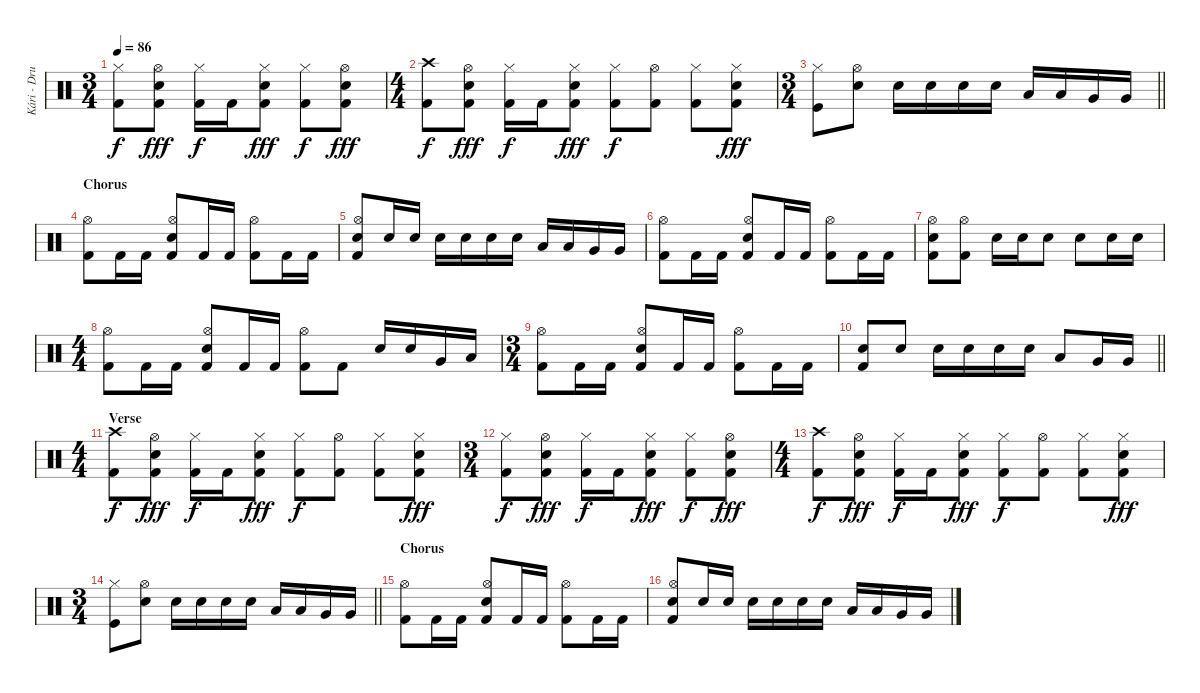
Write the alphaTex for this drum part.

\track ("Kári - Drums" "Kári - Dru") {instrument percussion}
\staff {score}
\articulation defaults
\ts (3 4)
\tempo 86
\clef neutral
\ks c
("Hi-Hat (closed)" "Kick (hit) 2").8{dy f} ("Hi-Hat (open)" "Electric Snare (hit)" "Kick (hit) 2").8{dy fff} ("Hi-Hat (closed)" "Kick (hit) 2").16{dy f} "Kick (hit) 2".16 ("Hi-Hat (closed)" "Electric Snare (hit)" "Kick (hit) 2").8{dy fff} ("Hi-Hat (closed)" "Kick (hit) 2").8{dy f} ("Hi-Hat (open)" "Electric Snare (hit)" "Kick (hit) 2").8{dy fff} |
\ts (4 4)
("Crash high (hit)" "Kick (hit) 2").8{dy f} ("Hi-Hat (open)" "Electric Snare (hit)" "Kick (hit) 2").8{dy fff} ("Hi-Hat (closed)" "Kick (hit) 2").16{dy f} "Kick (hit) 2".16 ("Hi-Hat (closed)" "Electric Snare (hit)" "Kick (hit) 2").8{dy fff} ("Hi-Hat (closed)" "Kick (hit) 2").8{dy f} ("Hi-Hat (open)" "Kick (hit) 2").8 ("Hi-Hat (closed)" "Kick (hit) 2").8 ("Hi-Hat (closed)" "Electric Snare (hit)" "Kick (hit) 2").8{dy fff} |
\ts (3 4)
\barLineRight lightlight
("Hi-Hat (closed)" "Kick (hit)").8 ("Hi-Hat (open)" "Electric Snare (hit)").8 "Electric Snare (hit)".16 "Electric Snare (hit)".16 "Electric Snare (hit)".16 "Electric Snare (hit)".16 "Low Tom (hit)".16 "Low Tom (hit)".16 "Very Low Tom (hit)".16 "Very Low Tom (hit)".16 |
\section ("" "Chorus")
("Hi-Hat (open)" "Kick (hit) 2").8 "Kick (hit) 2".16 "Kick (hit) 2".16 ("Hi-Hat (open)" "Electric Snare (hit)" "Kick (hit) 2").8 "Kick (hit) 2".16 "Kick (hit) 2".16 ("Hi-Hat (open)" "Kick (hit) 2").8 "Kick (hit) 2".16 "Kick (hit) 2".16 |
("Hi-Hat (open)" "Electric Snare (hit)" "Kick (hit) 2").8 "Electric Snare (hit)".16 "Electric Snare (hit)".16 "Electric Snare (hit)".16 "Electric Snare (hit)".16 "Electric Snare (hit)".16 "Electric Snare (hit)".16 "Low Tom (hit)".16 "Low Tom (hit)".16 "Very Low Tom (hit)".16 "Very Low Tom (hit)".16 |
("Hi-Hat (open)" "Kick (hit) 2").8 "Kick (hit) 2".16 "Kick (hit) 2".16 ("Hi-Hat (open)" "Electric Snare (hit)" "Kick (hit) 2").8 "Kick (hit) 2".16 "Kick (hit) 2".16 ("Hi-Hat (open)" "Kick (hit) 2").8 "Kick (hit) 2".16 "Kick (hit) 2".16 |
("Hi-Hat (open)" "Electric Snare (hit)" "Kick (hit) 2").8 ("Hi-Hat (open)" "Kick (hit) 2").8 "Electric Snare (hit)".16 "Electric Snare (hit)".16 "Electric Snare (hit)".8 "Electric Snare (hit)".8 "Electric Snare (hit)".16 "Electric Snare (hit)".16 |
\ts (4 4)
("Hi-Hat (open)" "Kick (hit) 2").8 "Kick (hit) 2".16 "Kick (hit) 2".16 ("Hi-Hat (open)" "Electric Snare (hit)" "Kick (hit) 2").8 "Kick (hit) 2".16 "Kick (hit) 2".16 ("Hi-Hat (open)" "Kick (hit) 2").8 "Kick (hit) 2".8 "Electric Snare (hit)".16 "Electric Snare (hit)".16 "Very Low Tom (hit)".16 "Low Floor Tom (hit)".16 |
\ts (3 4)
("Hi-Hat (open)" "Kick (hit) 2").8 "Kick (hit) 2".16 "Kick (hit) 2".16 ("Hi-Hat (open)" "Electric Snare (hit)" "Kick (hit) 2").8 "Kick (hit) 2".16 "Kick (hit) 2".16 ("Hi-Hat (open)" "Kick (hit) 2").8 "Kick (hit) 2".16 "Kick (hit) 2".16 |
\barLineRight lightlight
("Electric Snare (hit)" "Kick (hit) 2").8 "Electric Snare (hit)".8 "Electric Snare (hit)".16 "Electric Snare (hit)".16 "Electric Snare (hit)".16 "Electric Snare (hit)".16 "Low Tom (hit)".8 "Very Low Tom (hit)".16 "Very Low Tom (hit)".16 |
\ts (4 4)
\section ("" "Verse")
("Crash high (hit)" "Kick (hit) 2").8{dy f} ("Hi-Hat (open)" "Electric Snare (hit)" "Kick (hit) 2").8{dy fff} ("Hi-Hat (closed)" "Kick (hit) 2").16{dy f} "Kick (hit) 2".16 ("Hi-Hat (closed)" "Electric Snare (hit)" "Kick (hit) 2").8{dy fff} ("Hi-Hat (closed)" "Kick (hit) 2").8{dy f} ("Hi-Hat (open)" "Kick (hit) 2").8 ("Hi-Hat (closed)" "Kick (hit) 2").8 ("Hi-Hat (closed)" "Electric Snare (hit)" "Kick (hit) 2").8{dy fff} |
\ts (3 4)
("Hi-Hat (closed)" "Kick (hit) 2").8{dy f} ("Hi-Hat (open)" "Electric Snare (hit)" "Kick (hit) 2").8{dy fff} ("Hi-Hat (closed)" "Kick (hit) 2").16{dy f} "Kick (hit) 2".16 ("Hi-Hat (closed)" "Electric Snare (hit)" "Kick (hit) 2").8{dy fff} ("Hi-Hat (closed)" "Kick (hit) 2").8{dy f} ("Hi-Hat (open)" "Electric Snare (hit)" "Kick (hit) 2").8{dy fff} |
\ts (4 4)
("Crash high (hit)" "Kick (hit) 2").8{dy f} ("Hi-Hat (open)" "Electric Snare (hit)" "Kick (hit) 2").8{dy fff} ("Hi-Hat (closed)" "Kick (hit) 2").16{dy f} "Kick (hit) 2".16 ("Hi-Hat (closed)" "Electric Snare (hit)" "Kick (hit) 2").8{dy fff} ("Hi-Hat (closed)" "Kick (hit) 2").8{dy f} ("Hi-Hat (open)" "Kick (hit) 2").8 ("Hi-Hat (closed)" "Kick (hit) 2").8 ("Hi-Hat (closed)" "Electric Snare (hit)" "Kick (hit) 2").8{dy fff} |
\ts (3 4)
\barLineRight lightlight
("Hi-Hat (closed)" "Kick (hit)").8 ("Hi-Hat (open)" "Electric Snare (hit)").8 "Electric Snare (hit)".16 "Electric Snare (hit)".16 "Electric Snare (hit)".16 "Electric Snare (hit)".16 "Low Tom (hit)".16 "Low Tom (hit)".16 "Very Low Tom (hit)".16 "Very Low Tom (hit)".16 |
\section ("" "Chorus")
("Hi-Hat (open)" "Kick (hit) 2").8 "Kick (hit) 2".16 "Kick (hit) 2".16 ("Hi-Hat (open)" "Electric Snare (hit)" "Kick (hit) 2").8 "Kick (hit) 2".16 "Kick (hit) 2".16 ("Hi-Hat (open)" "Kick (hit) 2").8 "Kick (hit) 2".16 "Kick (hit) 2".16 |
("Hi-Hat (open)" "Electric Snare (hit)" "Kick (hit) 2").8 "Electric Snare (hit)".16 "Electric Snare (hit)".16 "Electric Snare (hit)".16 "Electric Snare (hit)".16 "Electric Snare (hit)".16 "Electric Snare (hit)".16 "Low Tom (hit)".16 "Low Tom (hit)".16 "Very Low Tom (hit)".16 "Very Low Tom (hit)".16
